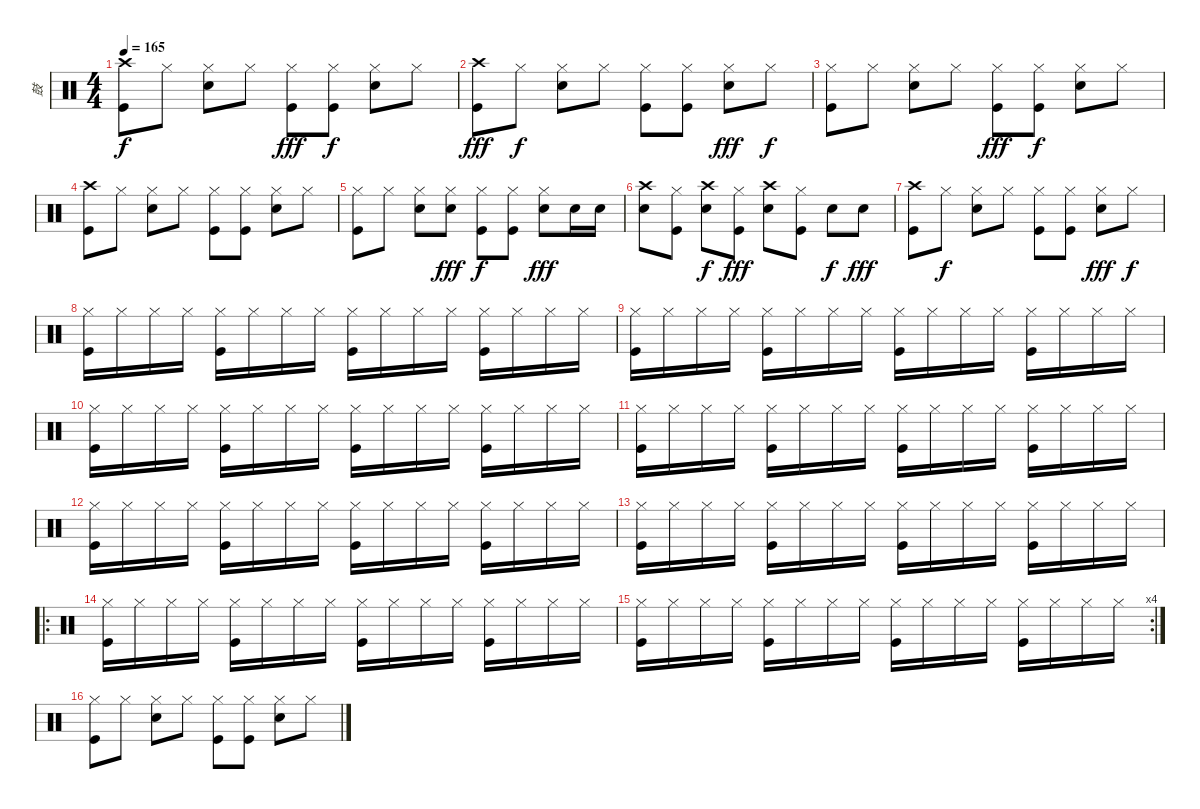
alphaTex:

\track ("鼓" "鼓") {instrument percussion}
\staff {score}
\articulation defaults
\ts (4 4)
\tempo 165
\clef neutral
\ks c
("Crash high (hit)" "Kick (hit)").8{dy f} "Hi-Hat (closed)".8 ("Hi-Hat (closed)" "Snare (hit) 2").8 "Hi-Hat (closed)".8 ("Hi-Hat (closed)" "Kick (hit)").8{dy fff} ("Hi-Hat (closed)" "Kick (hit)").8{dy f} ("Hi-Hat (closed)" "Snare (hit) 2").8 "Hi-Hat (closed)".8 |
("Crash high (hit)" "Kick (hit)").8{dy fff} "Hi-Hat (closed)".8{dy f} ("Hi-Hat (closed)" "Snare (hit) 2").8 "Hi-Hat (closed)".8 ("Hi-Hat (closed)" "Kick (hit)").8 ("Hi-Hat (closed)" "Kick (hit)").8 ("Hi-Hat (closed)" "Snare (hit) 2").8{dy fff} "Hi-Hat (closed)".8{dy f} |
("Hi-Hat (closed)" "Kick (hit)").8 "Hi-Hat (closed)".8 ("Hi-Hat (closed)" "Snare (hit) 2").8 "Hi-Hat (closed)".8 ("Hi-Hat (closed)" "Kick (hit)").8{dy fff} ("Hi-Hat (closed)" "Kick (hit)").8{dy f} ("Hi-Hat (closed)" "Snare (hit) 2").8 "Hi-Hat (closed)".8 |
("Crash high (hit)" "Kick (hit)").8 "Hi-Hat (closed)".8 ("Hi-Hat (closed)" "Snare (hit) 2").8 "Hi-Hat (closed)".8 ("Hi-Hat (closed)" "Kick (hit)").8 ("Hi-Hat (closed)" "Kick (hit)").8 ("Hi-Hat (closed)" "Snare (hit) 2").8 "Hi-Hat (closed)".8 |
("Hi-Hat (closed)" "Kick (hit)").8 "Hi-Hat (closed)".8 ("Hi-Hat (closed)" "Snare (hit) 2").8 ("Hi-Hat (closed)" "Snare (hit) 2").8{dy fff} ("Hi-Hat (closed)" "Kick (hit)").8{dy f} ("Hi-Hat (closed)" "Kick (hit)").8 ("Hi-Hat (closed)" "Snare (hit) 2").8{dy fff} "Snare (hit) 2".16 "Snare (hit) 2".16 |
("Crash high (hit)" "Snare (hit) 2").8 ("Hi-Hat (closed)" "Kick (hit)").8 ("Crash high (hit)" "Snare (hit) 2").8{dy f} ("Hi-Hat (closed)" "Kick (hit)").8{dy fff} ("Crash high (hit)" "Snare (hit) 2").8 ("Hi-Hat (closed)" "Kick (hit)").8 "Snare (hit) 2".8{dy f} "Snare (hit) 2".8{dy fff} |
("Crash high (hit)" "Kick (hit)").8 "Hi-Hat (closed)".8{dy f} ("Hi-Hat (closed)" "Snare (hit) 2").8 "Hi-Hat (closed)".8 ("Hi-Hat (closed)" "Kick (hit)").8 ("Hi-Hat (closed)" "Kick (hit)").8 ("Hi-Hat (closed)" "Snare (hit) 2").8{dy fff} "Hi-Hat (closed)".8{dy f} |
("Hi-Hat (closed)" "Kick (hit)").16 "Hi-Hat (closed)".16 "Hi-Hat (closed)".16 "Hi-Hat (closed)".16 ("Hi-Hat (closed)" "Kick (hit)").16 "Hi-Hat (closed)".16 "Hi-Hat (closed)".16 "Hi-Hat (closed)".16 ("Hi-Hat (closed)" "Kick (hit)").16 "Hi-Hat (closed)".16 "Hi-Hat (closed)".16 "Hi-Hat (closed)".16 ("Hi-Hat (closed)" "Kick (hit)").16 "Hi-Hat (closed)".16 "Hi-Hat (closed)".16 "Hi-Hat (closed)".16 |
("Hi-Hat (closed)" "Kick (hit)").16 "Hi-Hat (closed)".16 "Hi-Hat (closed)".16 "Hi-Hat (closed)".16 ("Hi-Hat (closed)" "Kick (hit)").16 "Hi-Hat (closed)".16 "Hi-Hat (closed)".16 "Hi-Hat (closed)".16 ("Hi-Hat (closed)" "Kick (hit)").16 "Hi-Hat (closed)".16 "Hi-Hat (closed)".16 "Hi-Hat (closed)".16 ("Hi-Hat (closed)" "Kick (hit)").16 "Hi-Hat (closed)".16 "Hi-Hat (closed)".16 "Hi-Hat (closed)".16 |
("Hi-Hat (closed)" "Kick (hit)").16 "Hi-Hat (closed)".16 "Hi-Hat (closed)".16 "Hi-Hat (closed)".16 ("Hi-Hat (closed)" "Kick (hit)").16 "Hi-Hat (closed)".16 "Hi-Hat (closed)".16 "Hi-Hat (closed)".16 ("Hi-Hat (closed)" "Kick (hit)").16 "Hi-Hat (closed)".16 "Hi-Hat (closed)".16 "Hi-Hat (closed)".16 ("Hi-Hat (closed)" "Kick (hit)").16 "Hi-Hat (closed)".16 "Hi-Hat (closed)".16 "Hi-Hat (closed)".16 |
("Hi-Hat (closed)" "Kick (hit)").16 "Hi-Hat (closed)".16 "Hi-Hat (closed)".16 "Hi-Hat (closed)".16 ("Hi-Hat (closed)" "Kick (hit)").16 "Hi-Hat (closed)".16 "Hi-Hat (closed)".16 "Hi-Hat (closed)".16 ("Hi-Hat (closed)" "Kick (hit)").16 "Hi-Hat (closed)".16 "Hi-Hat (closed)".16 "Hi-Hat (closed)".16 ("Hi-Hat (closed)" "Kick (hit)").16 "Hi-Hat (closed)".16 "Hi-Hat (closed)".16 "Hi-Hat (closed)".16 |
("Hi-Hat (closed)" "Kick (hit)").16 "Hi-Hat (closed)".16 "Hi-Hat (closed)".16 "Hi-Hat (closed)".16 ("Hi-Hat (closed)" "Kick (hit)").16 "Hi-Hat (closed)".16 "Hi-Hat (closed)".16 "Hi-Hat (closed)".16 ("Hi-Hat (closed)" "Kick (hit)").16 "Hi-Hat (closed)".16 "Hi-Hat (closed)".16 "Hi-Hat (closed)".16 ("Hi-Hat (closed)" "Kick (hit)").16 "Hi-Hat (closed)".16 "Hi-Hat (closed)".16 "Hi-Hat (closed)".16 |
("Hi-Hat (closed)" "Kick (hit)").16 "Hi-Hat (closed)".16 "Hi-Hat (closed)".16 "Hi-Hat (closed)".16 ("Hi-Hat (closed)" "Kick (hit)").16 "Hi-Hat (closed)".16 "Hi-Hat (closed)".16 "Hi-Hat (closed)".16 ("Hi-Hat (closed)" "Kick (hit)").16 "Hi-Hat (closed)".16 "Hi-Hat (closed)".16 "Hi-Hat (closed)".16 ("Hi-Hat (closed)" "Kick (hit)").16 "Hi-Hat (closed)".16 "Hi-Hat (closed)".16 "Hi-Hat (closed)".16 |
\ro
("Hi-Hat (closed)" "Kick (hit)").16 "Hi-Hat (closed)".16 "Hi-Hat (closed)".16 "Hi-Hat (closed)".16 ("Hi-Hat (closed)" "Kick (hit)").16 "Hi-Hat (closed)".16 "Hi-Hat (closed)".16 "Hi-Hat (closed)".16 ("Hi-Hat (closed)" "Kick (hit)").16 "Hi-Hat (closed)".16 "Hi-Hat (closed)".16 "Hi-Hat (closed)".16 ("Hi-Hat (closed)" "Kick (hit)").16 "Hi-Hat (closed)".16 "Hi-Hat (closed)".16 "Hi-Hat (closed)".16 |
\rc 4
("Hi-Hat (closed)" "Kick (hit)").16 "Hi-Hat (closed)".16 "Hi-Hat (closed)".16 "Hi-Hat (closed)".16 ("Hi-Hat (closed)" "Kick (hit)").16 "Hi-Hat (closed)".16 "Hi-Hat (closed)".16 "Hi-Hat (closed)".16 ("Hi-Hat (closed)" "Kick (hit)").16 "Hi-Hat (closed)".16 "Hi-Hat (closed)".16 "Hi-Hat (closed)".16 ("Hi-Hat (closed)" "Kick (hit)").16 "Hi-Hat (closed)".16 "Hi-Hat (closed)".16 "Hi-Hat (closed)".16 |
("Hi-Hat (closed)" "Kick (hit)").8 "Hi-Hat (closed)".8 ("Hi-Hat (closed)" "Snare (hit) 2").8 "Hi-Hat (closed)".8 ("Hi-Hat (closed)" "Kick (hit)").8 ("Hi-Hat (closed)" "Kick (hit)").8 ("Hi-Hat (closed)" "Snare (hit) 2").8 "Hi-Hat (closed)".8
